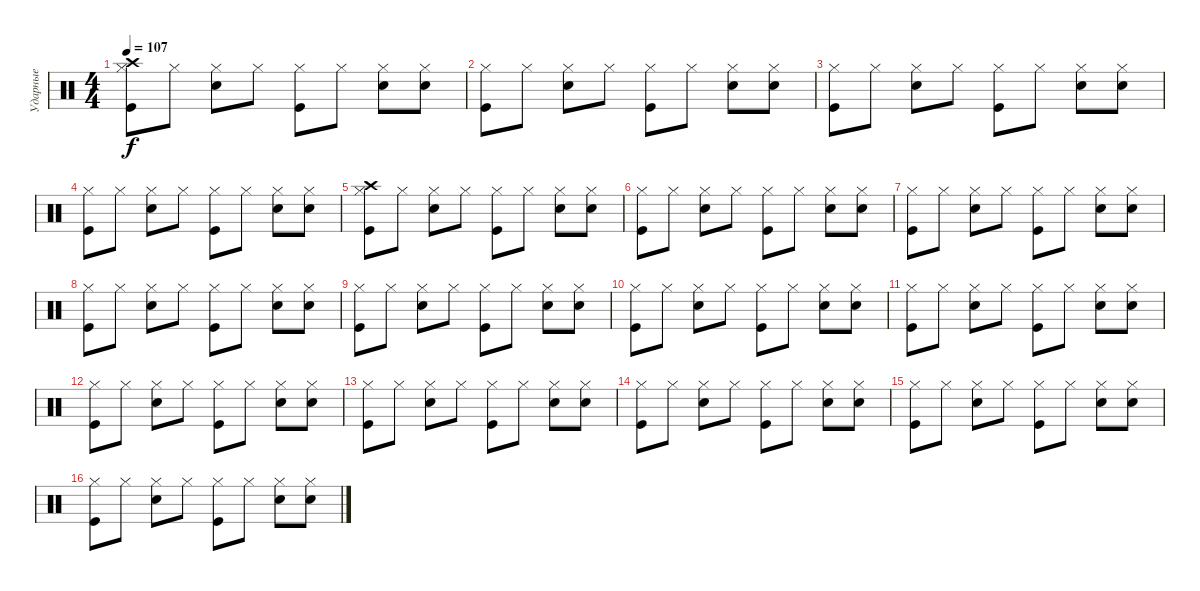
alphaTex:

\track ("Ударные" "Ударные") {instrument percussion}
\staff {score}
\articulation defaults
\ts (4 4)
\tempo 107
\clef neutral
\ks c
("Crash high (hit)" "Hi-Hat (closed)" "Kick (hit)").8{dy f} "Hi-Hat (closed)".8 ("Hi-Hat (closed)" "Electric Snare (hit)").8 "Hi-Hat (closed)".8 ("Hi-Hat (closed)" "Kick (hit)").8 "Hi-Hat (closed)".8 ("Hi-Hat (closed)" "Electric Snare (hit)").8 ("Hi-Hat (closed)" "Electric Snare (hit)").8 |
("Hi-Hat (closed)" "Kick (hit)").8 "Hi-Hat (closed)".8 ("Hi-Hat (closed)" "Electric Snare (hit)").8 "Hi-Hat (closed)".8 ("Hi-Hat (closed)" "Kick (hit)").8 "Hi-Hat (closed)".8 ("Hi-Hat (closed)" "Electric Snare (hit)").8 ("Hi-Hat (closed)" "Electric Snare (hit)").8 |
("Hi-Hat (closed)" "Kick (hit)").8 "Hi-Hat (closed)".8 ("Hi-Hat (closed)" "Electric Snare (hit)").8 "Hi-Hat (closed)".8 ("Hi-Hat (closed)" "Kick (hit)").8 "Hi-Hat (closed)".8 ("Hi-Hat (closed)" "Electric Snare (hit)").8 ("Hi-Hat (closed)" "Electric Snare (hit)").8 |
("Hi-Hat (closed)" "Kick (hit)").8 "Hi-Hat (closed)".8 ("Hi-Hat (closed)" "Electric Snare (hit)").8 "Hi-Hat (closed)".8 ("Hi-Hat (closed)" "Kick (hit)").8 "Hi-Hat (closed)".8 ("Hi-Hat (closed)" "Electric Snare (hit)").8 ("Hi-Hat (closed)" "Electric Snare (hit)").8 |
("Crash high (hit)" "Hi-Hat (closed)" "Kick (hit)").8 "Hi-Hat (closed)".8 ("Hi-Hat (closed)" "Electric Snare (hit)").8 "Hi-Hat (closed)".8 ("Hi-Hat (closed)" "Kick (hit)").8 "Hi-Hat (closed)".8 ("Hi-Hat (closed)" "Electric Snare (hit)").8 ("Hi-Hat (closed)" "Electric Snare (hit)").8 |
("Hi-Hat (closed)" "Kick (hit)").8 "Hi-Hat (closed)".8 ("Hi-Hat (closed)" "Electric Snare (hit)").8 "Hi-Hat (closed)".8 ("Hi-Hat (closed)" "Kick (hit)").8 "Hi-Hat (closed)".8 ("Hi-Hat (closed)" "Electric Snare (hit)").8 ("Hi-Hat (closed)" "Electric Snare (hit)").8 |
("Hi-Hat (closed)" "Kick (hit)").8 "Hi-Hat (closed)".8 ("Hi-Hat (closed)" "Electric Snare (hit)").8 "Hi-Hat (closed)".8 ("Hi-Hat (closed)" "Kick (hit)").8 "Hi-Hat (closed)".8 ("Hi-Hat (closed)" "Electric Snare (hit)").8 ("Hi-Hat (closed)" "Electric Snare (hit)").8 |
("Hi-Hat (closed)" "Kick (hit)").8 "Hi-Hat (closed)".8 ("Hi-Hat (closed)" "Electric Snare (hit)").8 "Hi-Hat (closed)".8 ("Hi-Hat (closed)" "Kick (hit)").8 "Hi-Hat (closed)".8 ("Hi-Hat (closed)" "Electric Snare (hit)").8 ("Hi-Hat (closed)" "Electric Snare (hit)").8 |
("Hi-Hat (closed)" "Kick (hit)").8 "Hi-Hat (closed)".8 ("Hi-Hat (closed)" "Electric Snare (hit)").8 "Hi-Hat (closed)".8 ("Hi-Hat (closed)" "Kick (hit)").8 "Hi-Hat (closed)".8 ("Hi-Hat (closed)" "Electric Snare (hit)").8 ("Hi-Hat (closed)" "Electric Snare (hit)").8 |
("Hi-Hat (closed)" "Kick (hit)").8 "Hi-Hat (closed)".8 ("Hi-Hat (closed)" "Electric Snare (hit)").8 "Hi-Hat (closed)".8 ("Hi-Hat (closed)" "Kick (hit)").8 "Hi-Hat (closed)".8 ("Hi-Hat (closed)" "Electric Snare (hit)").8 ("Hi-Hat (closed)" "Electric Snare (hit)").8 |
("Hi-Hat (closed)" "Kick (hit)").8 "Hi-Hat (closed)".8 ("Hi-Hat (closed)" "Electric Snare (hit)").8 "Hi-Hat (closed)".8 ("Hi-Hat (closed)" "Kick (hit)").8 "Hi-Hat (closed)".8 ("Hi-Hat (closed)" "Electric Snare (hit)").8 ("Hi-Hat (closed)" "Electric Snare (hit)").8 |
("Hi-Hat (closed)" "Kick (hit)").8 "Hi-Hat (closed)".8 ("Hi-Hat (closed)" "Electric Snare (hit)").8 "Hi-Hat (closed)".8 ("Hi-Hat (closed)" "Kick (hit)").8 "Hi-Hat (closed)".8 ("Hi-Hat (closed)" "Electric Snare (hit)").8 ("Hi-Hat (closed)" "Electric Snare (hit)").8 |
("Hi-Hat (closed)" "Kick (hit)").8 "Hi-Hat (closed)".8 ("Hi-Hat (closed)" "Electric Snare (hit)").8 "Hi-Hat (closed)".8 ("Hi-Hat (closed)" "Kick (hit)").8 "Hi-Hat (closed)".8 ("Hi-Hat (closed)" "Electric Snare (hit)").8 ("Hi-Hat (closed)" "Electric Snare (hit)").8 |
("Hi-Hat (closed)" "Kick (hit)").8 "Hi-Hat (closed)".8 ("Hi-Hat (closed)" "Electric Snare (hit)").8 "Hi-Hat (closed)".8 ("Hi-Hat (closed)" "Kick (hit)").8 "Hi-Hat (closed)".8 ("Hi-Hat (closed)" "Electric Snare (hit)").8 ("Hi-Hat (closed)" "Electric Snare (hit)").8 |
("Hi-Hat (closed)" "Kick (hit)").8 "Hi-Hat (closed)".8 ("Hi-Hat (closed)" "Electric Snare (hit)").8 "Hi-Hat (closed)".8 ("Hi-Hat (closed)" "Kick (hit)").8 "Hi-Hat (closed)".8 ("Hi-Hat (closed)" "Electric Snare (hit)").8 ("Hi-Hat (closed)" "Electric Snare (hit)").8 |
("Hi-Hat (closed)" "Kick (hit)").8 "Hi-Hat (closed)".8 ("Hi-Hat (closed)" "Electric Snare (hit)").8 "Hi-Hat (closed)".8 ("Hi-Hat (closed)" "Kick (hit)").8 "Hi-Hat (closed)".8 ("Hi-Hat (closed)" "Electric Snare (hit)").8 ("Hi-Hat (closed)" "Electric Snare (hit)").8
